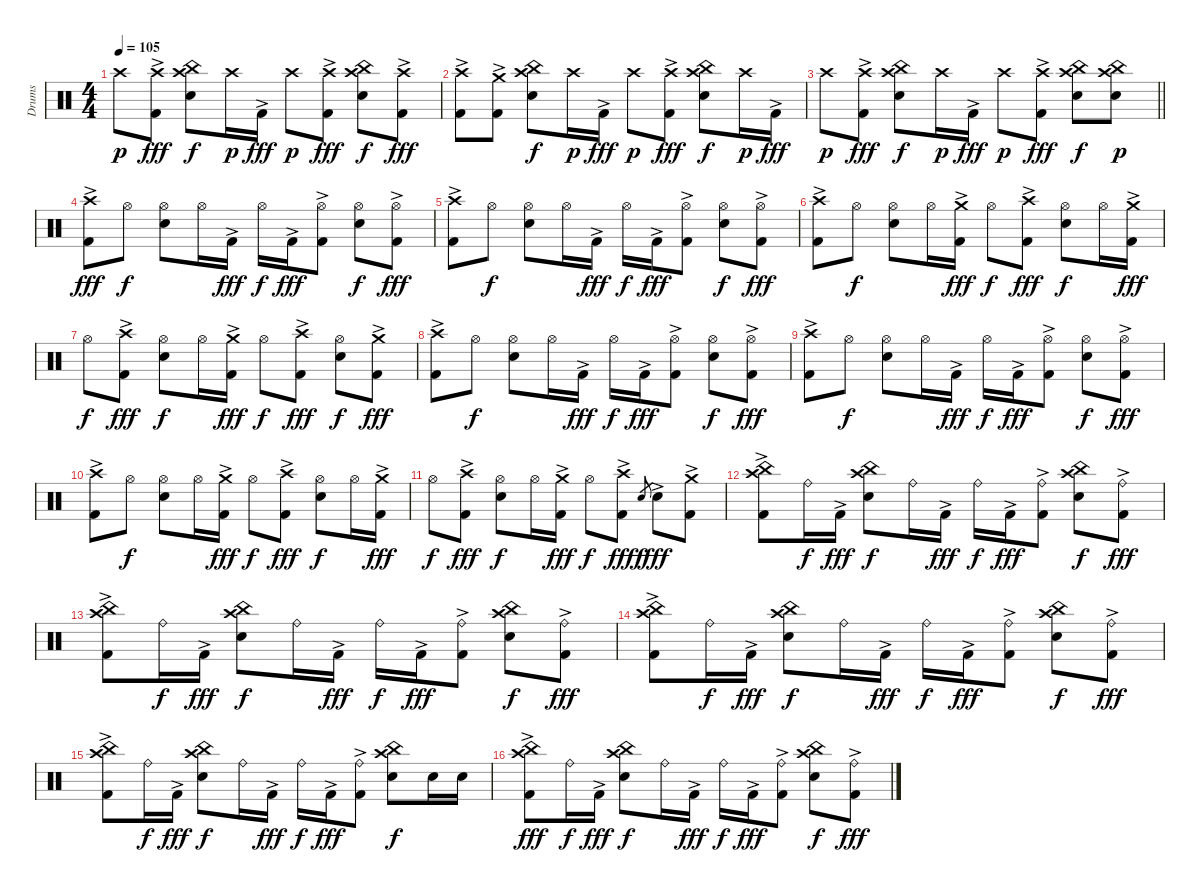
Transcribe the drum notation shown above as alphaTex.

\track ("Drums" "Drums") {instrument percussion}
\staff {score}
\articulation defaults
\ts (4 4)
\tempo 105
\clef neutral
\ks aminor "Crash high (hit)".8{dy p}
("Crash high (hit)" "Kick (hit) 2"{ac}).8{dy fff} ("Crash high (hit)" "China (hit)" "Snare (hit) 2").8{dy f} "Crash high (hit)".16{dy p} "Kick (hit) 2"{ac}.16{dy fff} "Crash high (hit)".8{dy p} ("Crash high (hit)" "Kick (hit) 2"{ac}).8{dy fff} ("Crash high (hit)" "China (hit)" "Snare (hit) 2").8{dy f} ("Crash high (hit)" "Kick (hit) 2"{ac}).8{dy fff} |
("Crash high (hit)" "Kick (hit) 2"{ac}).8 ("Crash medium (hit)" "Kick (hit) 2"{ac}).8 ("Crash high (hit)" "China (hit)" "Snare (hit) 2").8{dy f} "Crash high (hit)".16{dy p} "Kick (hit) 2"{ac}.16{dy fff} "Crash high (hit)".8{dy p} ("Crash high (hit)" "Kick (hit) 2"{ac}).8{dy fff} ("Crash high (hit)" "China (hit)" "Snare (hit) 2").8{dy f} "Crash high (hit)".16{dy p} "Kick (hit) 2"{ac}.16{dy fff} |
\barLineRight lightlight "Crash high (hit)".8{dy p}
("Crash high (hit)" "Kick (hit) 2"{ac}).8{dy fff} ("Crash high (hit)" "China (hit)" "Snare (hit) 2").8{dy f} "Crash high (hit)".16{dy p} "Kick (hit) 2"{ac}.16{dy fff} "Crash high (hit)".8{dy p} ("Crash high (hit)" "Kick (hit) 2"{ac}).8{dy fff} ("Crash high (hit)" "China (hit)" "Snare (hit) 2").8{dy f} ("Crash high (hit)" "China (hit)" "Snare (hit) 2").8{dy p} |
("Crash high (hit)" "Kick (hit) 2"{ac}).8{dy fff} "Hi-Hat (open)".8{dy f} ("Hi-Hat (open)" "Snare (hit) 2").8 "Hi-Hat (open)".16 "Kick (hit) 2"{ac}.16{dy fff} "Hi-Hat (open)".16{dy f} "Kick (hit) 2"{ac}.16{dy fff} ("Hi-Hat (open)" "Kick (hit) 2"{ac}).8 ("Hi-Hat (open)" "Snare (hit) 2").8{dy f} ("Hi-Hat (open)" "Kick (hit) 2"{ac}).8{dy fff} |
("Crash high (hit)" "Kick (hit) 2"{ac}).8 "Hi-Hat (open)".8{dy f} ("Hi-Hat (open)" "Snare (hit) 2").8 "Hi-Hat (open)".16 "Kick (hit) 2"{ac}.16{dy fff} "Hi-Hat (open)".16{dy f} "Kick (hit) 2"{ac}.16{dy fff} ("Hi-Hat (open)" "Kick (hit) 2"{ac}).8 ("Hi-Hat (open)" "Snare (hit) 2").8{dy f} ("Hi-Hat (open)" "Kick (hit) 2"{ac}).8{dy fff} |
("Crash high (hit)" "Kick (hit) 2"{ac}).8 "Hi-Hat (open)".8{dy f} ("Hi-Hat (open)" "Snare (hit) 2").8 "Hi-Hat (open)".16 ("Crash medium (hit)" "Kick (hit) 2"{ac}).16{dy fff} "Hi-Hat (open)".8{dy f} ("Crash high (hit)" "Kick (hit) 2"{ac}).8{dy fff} ("Hi-Hat (open)" "Snare (hit) 2").8{dy f} "Hi-Hat (open)".16 ("Crash medium (hit)" "Kick (hit) 2"{ac}).16{dy fff} |
"Hi-Hat (open)".8{dy f} ("Crash high (hit)" "Kick (hit) 2"{ac}).8{dy fff} ("Hi-Hat (open)" "Snare (hit) 2").8{dy f} "Hi-Hat (open)".16 ("Crash medium (hit)" "Kick (hit) 2"{ac}).16{dy fff} "Hi-Hat (open)".8{dy f} ("Crash high (hit)" "Kick (hit) 2"{ac}).8{dy fff} ("Hi-Hat (open)" "Snare (hit) 2").8{dy f} ("Crash medium (hit)" "Kick (hit) 2"{ac}).8{dy fff} |
("Crash high (hit)" "Kick (hit) 2"{ac}).8 "Hi-Hat (open)".8{dy f} ("Hi-Hat (open)" "Snare (hit) 2").8 "Hi-Hat (open)".16 "Kick (hit) 2"{ac}.16{dy fff} "Hi-Hat (open)".16{dy f} "Kick (hit) 2"{ac}.16{dy fff} ("Hi-Hat (open)" "Kick (hit) 2"{ac}).8 ("Hi-Hat (open)" "Snare (hit) 2").8{dy f} ("Hi-Hat (open)" "Kick (hit) 2"{ac}).8{dy fff} |
("Crash high (hit)" "Kick (hit) 2"{ac}).8 "Hi-Hat (open)".8{dy f} ("Hi-Hat (open)" "Snare (hit) 2").8 "Hi-Hat (open)".16 "Kick (hit) 2"{ac}.16{dy fff} "Hi-Hat (open)".16{dy f} "Kick (hit) 2"{ac}.16{dy fff} ("Hi-Hat (open)" "Kick (hit) 2"{ac}).8 ("Hi-Hat (open)" "Snare (hit) 2").8{dy f} ("Hi-Hat (open)" "Kick (hit) 2"{ac}).8{dy fff} |
("Crash high (hit)" "Kick (hit) 2"{ac}).8 "Hi-Hat (open)".8{dy f} ("Hi-Hat (open)" "Snare (hit) 2").8 "Hi-Hat (open)".16 ("Crash medium (hit)" "Kick (hit) 2"{ac}).16{dy fff} "Hi-Hat (open)".8{dy f} ("Crash high (hit)" "Kick (hit) 2"{ac}).8{dy fff} ("Hi-Hat (open)" "Snare (hit) 2").8{dy f} "Hi-Hat (open)".16 ("Crash medium (hit)" "Kick (hit) 2"{ac}).16{dy fff} |
"Hi-Hat (open)".8{dy f} ("Crash high (hit)" "Kick (hit) 2"{ac}).8{dy fff} ("Hi-Hat (open)" "Snare (hit) 2").8{dy f} "Hi-Hat (open)".16 ("Crash medium (hit)" "Kick (hit) 2"{ac}).16{dy fff} "Hi-Hat (open)".8{dy f} ("Crash high (hit)" "Kick (hit) 2"{ac}).8{dy fff} "Snare (hit) 2".8{gr dy f} "Snare (hit) 2"{ac}.8{dy fff} ("Crash medium (hit)" "Kick (hit) 2"{ac}).8 |
("Crash high (hit)" "China (hit)" "Kick (hit) 2"{ac}).8 "Ride (bell)".16{dy f} "Kick (hit) 2"{ac}.16{dy fff} ("Crash high (hit)" "China (hit)" "Snare (hit) 2").8{dy f} "Ride (bell)".16 "Kick (hit) 2"{ac}.16{dy fff} "Ride (bell)".16{dy f} "Kick (hit) 2"{ac}.16{dy fff} ("Ride (bell)" "Kick (hit) 2"{ac}).8 ("Crash high (hit)" "China (hit)" "Snare (hit) 2").8{dy f} ("Ride (bell)" "Kick (hit) 2"{ac}).8{dy fff} |
("Crash high (hit)" "China (hit)" "Kick (hit) 2"{ac}).8 "Ride (bell)".16{dy f} "Kick (hit) 2"{ac}.16{dy fff} ("Crash high (hit)" "China (hit)" "Snare (hit) 2").8{dy f} "Ride (bell)".16 "Kick (hit) 2"{ac}.16{dy fff} "Ride (bell)".16{dy f} "Kick (hit) 2"{ac}.16{dy fff} ("Ride (bell)" "Kick (hit) 2"{ac}).8 ("Crash high (hit)" "China (hit)" "Snare (hit) 2").8{dy f} ("Ride (bell)" "Kick (hit) 2"{ac}).8{dy fff} |
("Crash high (hit)" "China (hit)" "Kick (hit) 2"{ac}).8 "Ride (bell)".16{dy f} "Kick (hit) 2"{ac}.16{dy fff} ("Crash high (hit)" "China (hit)" "Snare (hit) 2").8{dy f} "Ride (bell)".16 "Kick (hit) 2"{ac}.16{dy fff} "Ride (bell)".16{dy f} "Kick (hit) 2"{ac}.16{dy fff} ("Ride (bell)" "Kick (hit) 2"{ac}).8 ("Crash high (hit)" "China (hit)" "Snare (hit) 2").8{dy f} ("Ride (bell)" "Kick (hit) 2"{ac}).8{dy fff} |
("Crash high (hit)" "China (hit)" "Kick (hit) 2"{ac}).8 "Ride (bell)".16{dy f} "Kick (hit) 2"{ac}.16{dy fff} ("Crash high (hit)" "China (hit)" "Snare (hit) 2").8{dy f} "Ride (bell)".16 "Kick (hit) 2"{ac}.16{dy fff} "Ride (bell)".16{dy f} "Kick (hit) 2"{ac}.16{dy fff} ("Ride (bell)" "Kick (hit) 2"{ac}).8 ("Crash high (hit)" "China (hit)" "Snare (hit) 2").8{dy f} "Snare (hit) 2".16 "Snare (hit) 2".16 |
("Crash high (hit)" "China (hit)" "Kick (hit) 2"{ac}).8{dy fff} "Ride (bell)".16{dy f} "Kick (hit) 2"{ac}.16{dy fff} ("Crash high (hit)" "China (hit)" "Snare (hit) 2").8{dy f} "Ride (bell)".16 "Kick (hit) 2"{ac}.16{dy fff} "Ride (bell)".16{dy f} "Kick (hit) 2"{ac}.16{dy fff} ("Ride (bell)" "Kick (hit) 2"{ac}).8 ("Crash high (hit)" "China (hit)" "Snare (hit) 2").8{dy f} ("Ride (bell)" "Kick (hit) 2"{ac}).8{dy fff}
